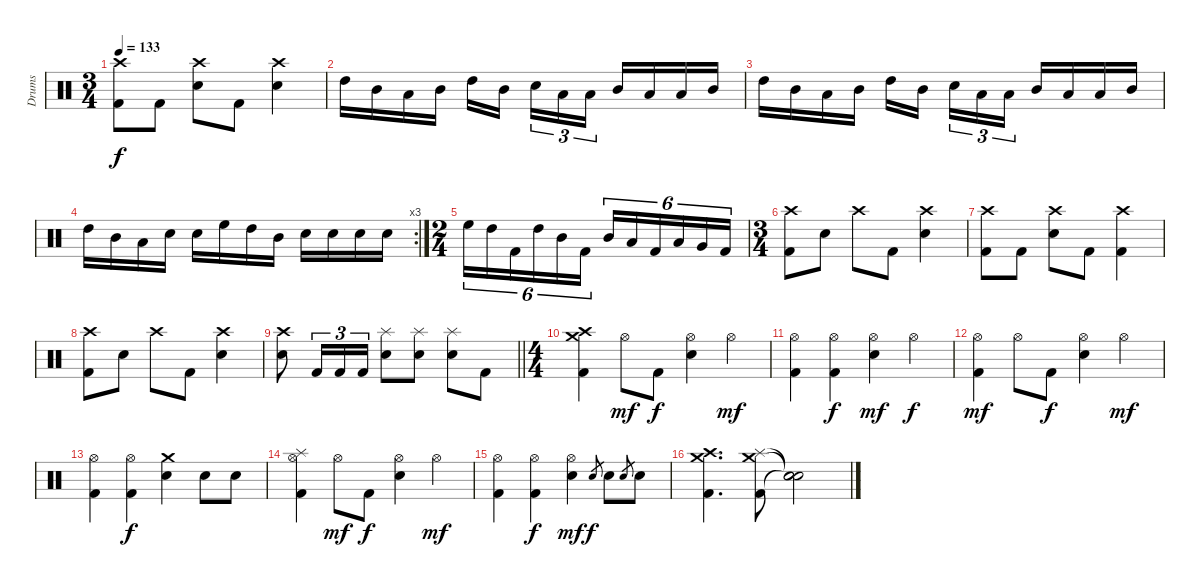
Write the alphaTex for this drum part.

\track ("Drums" "Drums") {instrument percussion}
\staff {score}
\articulation defaults
\ts (3 4)
\tempo 133
\clef neutral
\ks c
("Crash high (hit)" "Kick (hit) 2").8{dy f} "Kick (hit) 2".8 ("Crash high (hit)" "Electric Snare (hit)").8 "Kick (hit) 2".8 ("Crash high (hit)" "Electric Snare (hit)").4 |
"High Tom (hit)".16 "Mid Tom (hit)".16 "Low Tom (hit)".16 "Mid Tom (hit)".16 "High Tom (hit)".16 "Mid Tom (hit)".16 "Electric Snare (hit)".16{tu (3 2)} "Low Tom (hit)".16{tu (3 2)} "Low Tom (hit)".16{tu (3 2)} "Mid Tom (hit)".16 "Low Tom (hit)".16 "Low Tom (hit)".16 "Mid Tom (hit)".16 |
"High Tom (hit)".16 "Mid Tom (hit)".16 "Low Tom (hit)".16 "Mid Tom (hit)".16 "High Tom (hit)".16 "Mid Tom (hit)".16 "Electric Snare (hit)".16{tu (3 2)} "Low Tom (hit)".16{tu (3 2)} "Low Tom (hit)".16{tu (3 2)} "Mid Tom (hit)".16 "Low Tom (hit)".16 "Low Tom (hit)".16 "Mid Tom (hit)".16 |
\rc 3 "High Tom (hit)".16 "Mid Tom (hit)".16 "Low Tom (hit)".16 "Electric Snare (hit)".16 "Electric Snare (hit)".16 "High Floor Tom (hit)".16 "High Tom (hit)".16 "Mid Tom (hit)".16 "Electric Snare (hit)".16 "Electric Snare (hit)".16 "Electric Snare (hit)".16 "Electric Snare (hit)".16
|
\ts (2 4)
"High Floor Tom (hit)".16{tu (6 4)} "High Tom (hit)".16{tu (6 4)} "Kick (hit) 2".16{tu (6 4)} "High Tom (hit)".16{tu (6 4)} "Mid Tom (hit)".16{tu (6 4)} "Kick (hit) 2".16{tu (6 4)} "Mid Tom (hit)".16{tu (6 4)} "Low Tom (hit)".16{tu (6 4)} "Kick (hit) 2".16{tu (6 4)} "Low Tom (hit)".16{tu (6 4)} "Very Low Tom (hit)".16{tu (6 4)} "Kick (hit) 2".16{tu (6 4)} |
\ts (3 4)
("Crash high (hit)" "Kick (hit) 2").8 "Electric Snare (hit)".8 "Crash high (hit)".8 "Kick (hit) 2".8 ("Crash high (hit)" "Electric Snare (hit)").4 |
("Crash high (hit)" "Kick (hit) 2").8 "Kick (hit) 2".8 ("Crash high (hit)" "Electric Snare (hit)").8 "Kick (hit) 2".8 ("Crash high (hit)" "Kick (hit) 2").4 |
("Crash high (hit)" "Kick (hit) 2").8 "Electric Snare (hit)".8 "Crash high (hit)".8 "Kick (hit) 2".8 ("Crash high (hit)" "Electric Snare (hit)").4 |
\barLineRight lightlight
("Crash high (hit)" "Electric Snare (hit)").8 "Kick (hit) 2".16{tu (3 2)} "Kick (hit) 2".16{tu (3 2)} "Kick (hit) 2".16{tu (3 2)} ("Splash (hit)" "Electric Snare (hit)").8 ("Splash (hit)" "Electric Snare (hit)").8 ("Splash (hit)" "Electric Snare (hit)").8 "Kick (hit) 2".8 |
\ts (4 4)
("Crash high (hit)" "Crash medium (hit)" "Kick (hit) 2").4 "Hi-Hat (open)".8{dy mf} "Kick (hit) 2".8{dy f} ("Hi-Hat (open)" "Electric Snare (hit)").4 "Hi-Hat (open)".4{dy mf} |
("Hi-Hat (open)" "Kick (hit) 2").4 ("Hi-Hat (open)" "Kick (hit) 2").4{dy f} ("Hi-Hat (open)" "Electric Snare (hit)").4{dy mf} "Hi-Hat (open)".4{dy f} |
("Hi-Hat (open)" "Kick (hit) 2").4{dy mf} "Hi-Hat (open)".8 "Kick (hit) 2".8{dy f} ("Hi-Hat (open)" "Electric Snare (hit)").4 "Hi-Hat (open)".4{dy mf} |
("Hi-Hat (open)" "Kick (hit) 2").4 ("Hi-Hat (open)" "Kick (hit) 2").4{dy f} ("Crash medium (hit)" "Electric Snare (hit)").4 "Electric Snare (hit)".8 "Electric Snare (hit)".8 |
("Splash (hit)" "Hi-Hat (open)" "Kick (hit) 2").4 "Hi-Hat (open)".8{dy mf} "Kick (hit) 2".8{dy f} ("Hi-Hat (open)" "Electric Snare (hit)").4 "Hi-Hat (open)".4{dy mf} |
("Hi-Hat (open)" "Kick (hit) 2").4 ("Hi-Hat (open)" "Kick (hit) 2").4{dy f} ("Hi-Hat (open)" "Electric Snare (hit)").4{dy mf} "Electric Snare (hit)".8{gr dy f} "Electric Snare (hit)".8 "Electric Snare (hit)".8{gr} "Electric Snare (hit)".8 |
("Crash high (hit)" "Crash medium (hit)" "Kick (hit) 2").4{d} ("Crash medium (hit)" "Splash (hit)" "Kick (hit) 2").8 ("Snare (hit)"{t} "Snare (hit)"{t} "Snare (hit)"{t}).2
